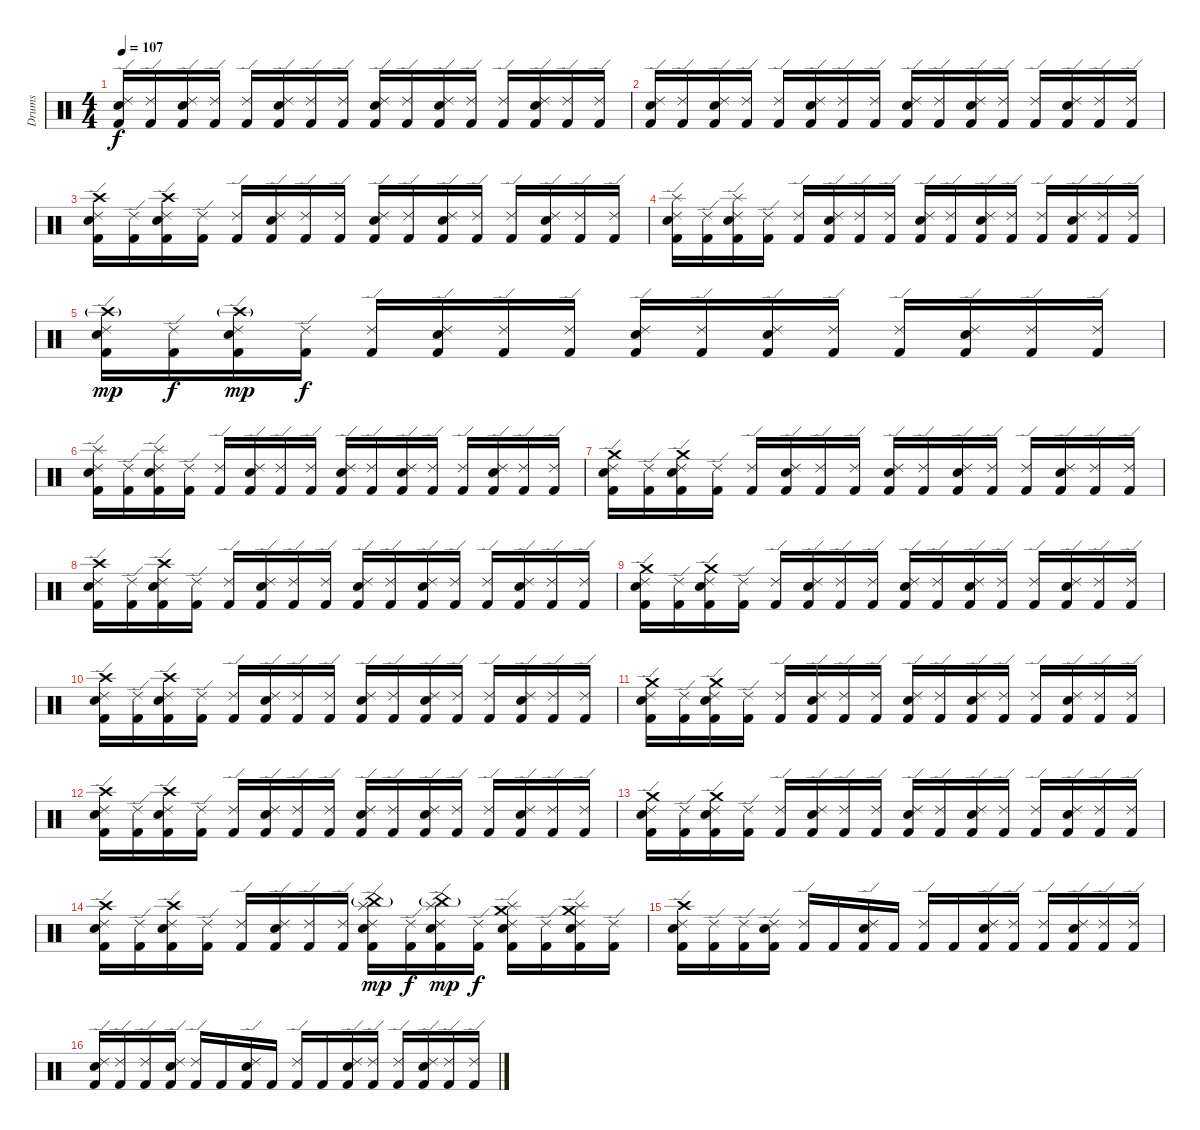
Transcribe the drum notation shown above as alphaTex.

\track ("Drums" "Drums") {instrument percussion}
\staff {score}
\articulation defaults
\ts (4 4)
\tempo 107
\clef neutral
\ks c
("Kick (hit) 2" "Electric Snare (hit)" "Ride (edge) 2").16{dy f} ("Kick (hit) 2" "Ride (edge) 2").16 ("Kick (hit) 2" "Electric Snare (hit)" "Ride (edge) 2").16 ("Kick (hit) 2" "Ride (edge) 2").16 ("Kick (hit) 2" "Ride (edge) 2").16 ("Kick (hit) 2" "Electric Snare (hit)" "Ride (edge) 2").16 ("Kick (hit) 2" "Ride (edge) 2").16 ("Kick (hit) 2" "Ride (edge) 2").16 ("Kick (hit) 2" "Electric Snare (hit)" "Ride (edge) 2").16 ("Kick (hit) 2" "Ride (edge) 2").16 ("Kick (hit) 2" "Electric Snare (hit)" "Ride (edge) 2").16 ("Kick (hit) 2" "Ride (edge) 2").16 ("Kick (hit) 2" "Ride (edge) 2").16 ("Kick (hit) 2" "Electric Snare (hit)" "Ride (edge) 2").16 ("Kick (hit) 2" "Ride (edge) 2").16 ("Kick (hit) 2" "Ride (edge) 2").16 |
("Kick (hit) 2" "Electric Snare (hit)" "Ride (edge) 2").16 ("Kick (hit) 2" "Ride (edge) 2").16 ("Kick (hit) 2" "Electric Snare (hit)" "Ride (edge) 2").16 ("Kick (hit) 2" "Ride (edge) 2").16 ("Kick (hit) 2" "Ride (edge) 2").16 ("Kick (hit) 2" "Electric Snare (hit)" "Ride (edge) 2").16 ("Kick (hit) 2" "Ride (edge) 2").16 ("Kick (hit) 2" "Ride (edge) 2").16 ("Kick (hit) 2" "Electric Snare (hit)" "Ride (edge) 2").16 ("Kick (hit) 2" "Ride (edge) 2").16 ("Kick (hit) 2" "Electric Snare (hit)" "Ride (edge) 2").16 ("Kick (hit) 2" "Ride (edge) 2").16 ("Kick (hit) 2" "Ride (edge) 2").16 ("Kick (hit) 2" "Electric Snare (hit)" "Ride (edge) 2").16 ("Kick (hit) 2" "Ride (edge) 2").16 ("Kick (hit) 2" "Ride (edge) 2").16 |
("Kick (hit) 2" "Electric Snare (hit)" "Ride (edge) 2" "Crash high (hit)").16 ("Kick (hit) 2" "Ride (edge) 2").16 ("Kick (hit) 2" "Electric Snare (hit)" "Ride (edge) 2" "Crash high (hit)").16 ("Kick (hit) 2" "Ride (edge) 2").16 ("Kick (hit) 2" "Ride (edge) 2").16 ("Kick (hit) 2" "Electric Snare (hit)" "Ride (edge) 2").16 ("Kick (hit) 2" "Ride (edge) 2").16 ("Kick (hit) 2" "Ride (edge) 2").16 ("Kick (hit) 2" "Electric Snare (hit)" "Ride (edge) 2").16 ("Kick (hit) 2" "Ride (edge) 2").16 ("Kick (hit) 2" "Electric Snare (hit)" "Ride (edge) 2").16 ("Kick (hit) 2" "Ride (edge) 2").16 ("Kick (hit) 2" "Ride (edge) 2").16 ("Kick (hit) 2" "Electric Snare (hit)" "Ride (edge) 2").16 ("Kick (hit) 2" "Ride (edge) 2").16 ("Kick (hit) 2" "Ride (edge) 2").16 |
("Kick (hit) 2" "Electric Snare (hit)" "Ride (edge) 2" "Splash (hit)").16 ("Kick (hit) 2" "Ride (edge) 2").16 ("Kick (hit) 2" "Electric Snare (hit)" "Ride (edge) 2" "Splash (hit)").16 ("Kick (hit) 2" "Ride (edge) 2").16 ("Kick (hit) 2" "Ride (edge) 2").16 ("Kick (hit) 2" "Electric Snare (hit)" "Ride (edge) 2").16 ("Kick (hit) 2" "Ride (edge) 2").16 ("Kick (hit) 2" "Ride (edge) 2").16 ("Kick (hit) 2" "Electric Snare (hit)" "Ride (edge) 2").16 ("Kick (hit) 2" "Ride (edge) 2").16 ("Kick (hit) 2" "Electric Snare (hit)" "Ride (edge) 2").16 ("Kick (hit) 2" "Ride (edge) 2").16 ("Kick (hit) 2" "Ride (edge) 2").16 ("Kick (hit) 2" "Electric Snare (hit)" "Ride (edge) 2").16 ("Kick (hit) 2" "Ride (edge) 2").16 ("Kick (hit) 2" "Ride (edge) 2").16 |
("Kick (hit) 2" "Electric Snare (hit)" "Ride (edge) 2" "Crash high (hit)"{g}).16{dy mp} ("Kick (hit) 2" "Ride (edge) 2").16{dy f} ("Kick (hit) 2" "Electric Snare (hit)" "Ride (edge) 2" "Crash high (hit)"{g}).16{dy mp} ("Kick (hit) 2" "Ride (edge) 2").16{dy f} ("Kick (hit) 2" "Ride (edge) 2").16 ("Kick (hit) 2" "Electric Snare (hit)" "Ride (edge) 2").16 ("Kick (hit) 2" "Ride (edge) 2").16 ("Kick (hit) 2" "Ride (edge) 2").16 ("Kick (hit) 2" "Electric Snare (hit)" "Ride (edge) 2").16 ("Kick (hit) 2" "Ride (edge) 2").16 ("Kick (hit) 2" "Electric Snare (hit)" "Ride (edge) 2").16 ("Kick (hit) 2" "Ride (edge) 2").16 ("Kick (hit) 2" "Ride (edge) 2").16 ("Kick (hit) 2" "Electric Snare (hit)" "Ride (edge) 2").16 ("Kick (hit) 2" "Ride (edge) 2").16 ("Kick (hit) 2" "Ride (edge) 2").16 |
("Kick (hit) 2" "Electric Snare (hit)" "Ride (edge) 2" "Splash (hit)").16 ("Kick (hit) 2" "Ride (edge) 2").16 ("Kick (hit) 2" "Electric Snare (hit)" "Ride (edge) 2" "Splash (hit)").16 ("Kick (hit) 2" "Ride (edge) 2").16 ("Kick (hit) 2" "Ride (edge) 2").16 ("Kick (hit) 2" "Electric Snare (hit)" "Ride (edge) 2").16 ("Kick (hit) 2" "Ride (edge) 2").16 ("Kick (hit) 2" "Ride (edge) 2").16 ("Kick (hit) 2" "Electric Snare (hit)" "Ride (edge) 2").16 ("Kick (hit) 2" "Ride (edge) 2").16 ("Kick (hit) 2" "Electric Snare (hit)" "Ride (edge) 2").16 ("Kick (hit) 2" "Ride (edge) 2").16 ("Kick (hit) 2" "Ride (edge) 2").16 ("Kick (hit) 2" "Electric Snare (hit)" "Ride (edge) 2").16 ("Kick (hit) 2" "Ride (edge) 2").16 ("Kick (hit) 2" "Ride (edge) 2").16 |
("Kick (hit) 2" "Electric Snare (hit)" "Ride (edge) 2" "Crash medium (hit)").16 ("Kick (hit) 2" "Ride (edge) 2").16 ("Kick (hit) 2" "Electric Snare (hit)" "Ride (edge) 2" "Crash medium (hit)").16 ("Kick (hit) 2" "Ride (edge) 2").16 ("Kick (hit) 2" "Ride (edge) 2").16 ("Kick (hit) 2" "Electric Snare (hit)" "Ride (edge) 2").16 ("Kick (hit) 2" "Ride (edge) 2").16 ("Kick (hit) 2" "Ride (edge) 2").16 ("Kick (hit) 2" "Electric Snare (hit)" "Ride (edge) 2").16 ("Kick (hit) 2" "Ride (edge) 2").16 ("Kick (hit) 2" "Electric Snare (hit)" "Ride (edge) 2").16 ("Kick (hit) 2" "Ride (edge) 2").16 ("Kick (hit) 2" "Ride (edge) 2").16 ("Kick (hit) 2" "Electric Snare (hit)" "Ride (edge) 2").16 ("Kick (hit) 2" "Ride (edge) 2").16 ("Kick (hit) 2" "Ride (edge) 2").16 |
("Kick (hit) 2" "Electric Snare (hit)" "Ride (edge) 2" "Crash high (hit)").16 ("Kick (hit) 2" "Ride (edge) 2").16 ("Kick (hit) 2" "Electric Snare (hit)" "Ride (edge) 2" "Crash high (hit)").16 ("Kick (hit) 2" "Ride (edge) 2").16 ("Kick (hit) 2" "Ride (edge) 2").16 ("Kick (hit) 2" "Electric Snare (hit)" "Ride (edge) 2").16 ("Kick (hit) 2" "Ride (edge) 2").16 ("Kick (hit) 2" "Ride (edge) 2").16 ("Kick (hit) 2" "Electric Snare (hit)" "Ride (edge) 2").16 ("Kick (hit) 2" "Ride (edge) 2").16 ("Kick (hit) 2" "Electric Snare (hit)" "Ride (edge) 2").16 ("Kick (hit) 2" "Ride (edge) 2").16 ("Kick (hit) 2" "Ride (edge) 2").16 ("Kick (hit) 2" "Electric Snare (hit)" "Ride (edge) 2").16 ("Kick (hit) 2" "Ride (edge) 2").16 ("Kick (hit) 2" "Ride (edge) 2").16 |
("Kick (hit) 2" "Electric Snare (hit)" "Ride (edge) 2" "Crash medium (hit)").16 ("Kick (hit) 2" "Ride (edge) 2").16 ("Kick (hit) 2" "Electric Snare (hit)" "Ride (edge) 2" "Crash medium (hit)").16 ("Kick (hit) 2" "Ride (edge) 2").16 ("Kick (hit) 2" "Ride (edge) 2").16 ("Kick (hit) 2" "Electric Snare (hit)" "Ride (edge) 2").16 ("Kick (hit) 2" "Ride (edge) 2").16 ("Kick (hit) 2" "Ride (edge) 2").16 ("Kick (hit) 2" "Electric Snare (hit)" "Ride (edge) 2").16 ("Kick (hit) 2" "Ride (edge) 2").16 ("Kick (hit) 2" "Electric Snare (hit)" "Ride (edge) 2").16 ("Kick (hit) 2" "Ride (edge) 2").16 ("Kick (hit) 2" "Ride (edge) 2").16 ("Kick (hit) 2" "Electric Snare (hit)" "Ride (edge) 2").16 ("Kick (hit) 2" "Ride (edge) 2").16 ("Kick (hit) 2" "Ride (edge) 2").16 |
("Kick (hit) 2" "Electric Snare (hit)" "Ride (edge) 2" "Crash high (hit)").16 ("Kick (hit) 2" "Ride (edge) 2").16 ("Kick (hit) 2" "Electric Snare (hit)" "Ride (edge) 2" "Crash high (hit)").16 ("Kick (hit) 2" "Ride (edge) 2").16 ("Kick (hit) 2" "Ride (edge) 2").16 ("Kick (hit) 2" "Electric Snare (hit)" "Ride (edge) 2").16 ("Kick (hit) 2" "Ride (edge) 2").16 ("Kick (hit) 2" "Ride (edge) 2").16 ("Kick (hit) 2" "Electric Snare (hit)" "Ride (edge) 2").16 ("Kick (hit) 2" "Ride (edge) 2").16 ("Kick (hit) 2" "Electric Snare (hit)" "Ride (edge) 2").16 ("Kick (hit) 2" "Ride (edge) 2").16 ("Kick (hit) 2" "Ride (edge) 2").16 ("Kick (hit) 2" "Electric Snare (hit)" "Ride (edge) 2").16 ("Kick (hit) 2" "Ride (edge) 2").16 ("Kick (hit) 2" "Ride (edge) 2").16 |
("Kick (hit) 2" "Electric Snare (hit)" "Ride (edge) 2" "Crash medium (hit)").16 ("Kick (hit) 2" "Ride (edge) 2").16 ("Kick (hit) 2" "Electric Snare (hit)" "Ride (edge) 2" "Crash medium (hit)").16 ("Kick (hit) 2" "Ride (edge) 2").16 ("Kick (hit) 2" "Ride (edge) 2").16 ("Kick (hit) 2" "Electric Snare (hit)" "Ride (edge) 2").16 ("Kick (hit) 2" "Ride (edge) 2").16 ("Kick (hit) 2" "Ride (edge) 2").16 ("Kick (hit) 2" "Electric Snare (hit)" "Ride (edge) 2").16 ("Kick (hit) 2" "Ride (edge) 2").16 ("Kick (hit) 2" "Electric Snare (hit)" "Ride (edge) 2").16 ("Kick (hit) 2" "Ride (edge) 2").16 ("Kick (hit) 2" "Ride (edge) 2").16 ("Kick (hit) 2" "Electric Snare (hit)" "Ride (edge) 2").16 ("Kick (hit) 2" "Ride (edge) 2").16 ("Kick (hit) 2" "Ride (edge) 2").16 |
("Kick (hit) 2" "Electric Snare (hit)" "Ride (edge) 2" "Crash high (hit)").16 ("Kick (hit) 2" "Ride (edge) 2").16 ("Kick (hit) 2" "Electric Snare (hit)" "Ride (edge) 2" "Crash high (hit)").16 ("Kick (hit) 2" "Ride (edge) 2").16 ("Kick (hit) 2" "Ride (edge) 2").16 ("Kick (hit) 2" "Electric Snare (hit)" "Ride (edge) 2").16 ("Kick (hit) 2" "Ride (edge) 2").16 ("Kick (hit) 2" "Ride (edge) 2").16 ("Kick (hit) 2" "Electric Snare (hit)" "Ride (edge) 2").16 ("Kick (hit) 2" "Ride (edge) 2").16 ("Kick (hit) 2" "Electric Snare (hit)" "Ride (edge) 2").16 ("Kick (hit) 2" "Ride (edge) 2").16 ("Kick (hit) 2" "Ride (edge) 2").16 ("Kick (hit) 2" "Electric Snare (hit)" "Ride (edge) 2").16 ("Kick (hit) 2" "Ride (edge) 2").16 ("Kick (hit) 2" "Ride (edge) 2").16 |
("Kick (hit) 2" "Electric Snare (hit)" "Ride (edge) 2" "Crash medium (hit)").16 ("Kick (hit) 2" "Ride (edge) 2").16 ("Kick (hit) 2" "Electric Snare (hit)" "Ride (edge) 2" "Crash medium (hit)").16 ("Kick (hit) 2" "Ride (edge) 2").16 ("Kick (hit) 2" "Ride (edge) 2").16 ("Kick (hit) 2" "Electric Snare (hit)" "Ride (edge) 2").16 ("Kick (hit) 2" "Ride (edge) 2").16 ("Kick (hit) 2" "Ride (edge) 2").16 ("Kick (hit) 2" "Electric Snare (hit)" "Ride (edge) 2").16 ("Kick (hit) 2" "Ride (edge) 2").16 ("Kick (hit) 2" "Electric Snare (hit)" "Ride (edge) 2").16 ("Kick (hit) 2" "Ride (edge) 2").16 ("Kick (hit) 2" "Ride (edge) 2").16 ("Kick (hit) 2" "Electric Snare (hit)" "Ride (edge) 2").16 ("Kick (hit) 2" "Ride (edge) 2").16 ("Kick (hit) 2" "Ride (edge) 2").16 |
("Kick (hit) 2" "Electric Snare (hit)" "Ride (edge) 2" "Crash high (hit)").16 ("Kick (hit) 2" "Ride (edge) 2").16 ("Kick (hit) 2" "Electric Snare (hit)" "Ride (edge) 2" "Crash high (hit)").16 ("Kick (hit) 2" "Ride (edge) 2").16 ("Kick (hit) 2" "Ride (edge) 2").16 ("Kick (hit) 2" "Electric Snare (hit)" "Ride (edge) 2").16 ("Kick (hit) 2" "Ride (edge) 2").16 ("Kick (hit) 2" "Ride (edge) 2").16 ("Kick (hit) 2" "Electric Snare (hit)" "Ride (edge) 2" "Splash (hit)" "China (hit)"{g}).16{dy mp} ("Kick (hit) 2" "Ride (edge) 2").16{dy f} ("Kick (hit) 2" "Electric Snare (hit)" "Ride (edge) 2" "Splash (hit)" "China (hit)"{g}).16{dy mp} ("Kick (hit) 2" "Ride (edge) 2").16{dy f} ("Kick (hit) 2" "Electric Snare (hit)" "Ride (edge) 2" "Splash (hit)" "Crash medium (hit)").16 ("Kick (hit) 2" "Ride (edge) 2").16 ("Kick (hit) 2" "Electric Snare (hit)" "Ride (edge) 2" "Splash (hit)" "Crash medium (hit)").16 ("Kick (hit) 2" "Ride (edge) 2").16 |
("Kick (hit) 2" "Electric Snare (hit)" "Ride (edge) 2" "Crash high (hit)").16 ("Kick (hit) 2" "Ride (edge) 2").16 ("Kick (hit) 2" "Ride (edge) 2").16 ("Kick (hit) 2" "Electric Snare (hit)" "Ride (edge) 2").16 ("Kick (hit) 2" "Ride (edge) 2").16 "Kick (hit) 2".16 ("Kick (hit) 2" "Electric Snare (hit)" "Ride (edge) 2").16 "Kick (hit) 2".16 ("Kick (hit) 2" "Ride (edge) 2").16 "Kick (hit) 2".16 ("Kick (hit) 2" "Electric Snare (hit)" "Ride (edge) 2").16 ("Kick (hit) 2" "Ride (edge) 2").16 ("Kick (hit) 2" "Ride (edge) 2").16 ("Kick (hit) 2" "Electric Snare (hit)" "Ride (edge) 2").16 ("Kick (hit) 2" "Ride (edge) 2").16 ("Kick (hit) 2" "Ride (edge) 2").16 |
("Kick (hit) 2" "Electric Snare (hit)" "Ride (edge) 2").16 ("Kick (hit) 2" "Ride (edge) 2").16 ("Kick (hit) 2" "Ride (edge) 2").16 ("Kick (hit) 2" "Electric Snare (hit)" "Ride (edge) 2").16 ("Kick (hit) 2" "Ride (edge) 2").16 "Kick (hit) 2".16 ("Kick (hit) 2" "Electric Snare (hit)" "Ride (edge) 2").16 "Kick (hit) 2".16 ("Kick (hit) 2" "Ride (edge) 2").16 "Kick (hit) 2".16 ("Kick (hit) 2" "Electric Snare (hit)" "Ride (edge) 2").16 ("Kick (hit) 2" "Ride (edge) 2").16 ("Kick (hit) 2" "Ride (edge) 2").16 ("Kick (hit) 2" "Electric Snare (hit)" "Ride (edge) 2").16 ("Kick (hit) 2" "Ride (edge) 2").16 ("Kick (hit) 2" "Ride (edge) 2").16
